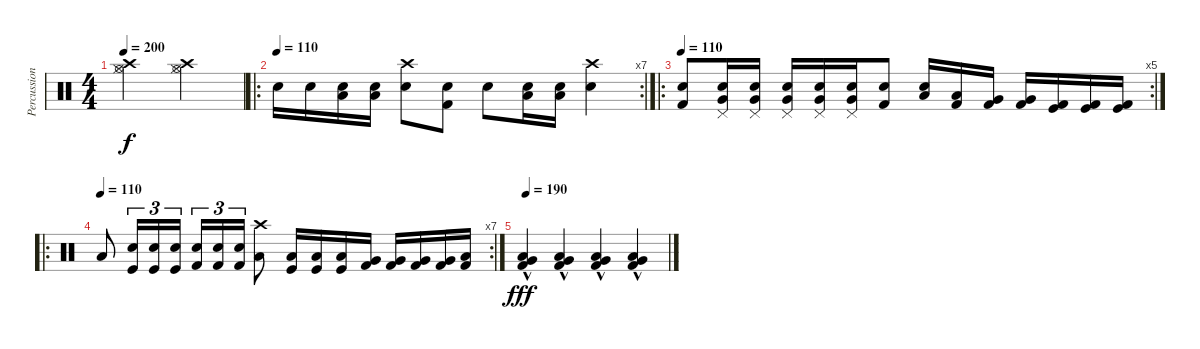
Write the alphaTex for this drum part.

\track ("Percussion" "Percussion") {instrument percussion}
\staff {score}
\articulation defaults
\ts (4 4)
\tempo 200
\clef neutral
\ks c
("Hi-Hat (closed)" "Hi-Hat (open)" "Crash high (hit)").2{dy f} ("Hi-Hat (closed)" "Hi-Hat (open)" "Crash high (hit)").2 |
\ro
\rc 7
\tempo (110)
"Electric Snare (hit)".16 "Electric Snare (hit)".16 ("Low Tom (hit)" "Electric Snare (hit)").16 ("Low Tom (hit)" "Electric Snare (hit)").16 ("Crash high (hit)" "Electric Snare (hit)").8 ("Kick (hit) 2" "Electric Snare (hit)").8 "Electric Snare (hit)".8 ("Low Tom (hit)" "Electric Snare (hit)").16 ("Low Tom (hit)" "Electric Snare (hit)").16 ("Crash high (hit)" "Electric Snare (hit)").4 |
\ro
\rc 5
\tempo 110
("Kick (hit) 2" "Electric Snare (hit)").8 ("Electric Snare (hit)" "Pedal Hi-Hat (hit)" "Very Low Tom (hit)").16 ("Electric Snare (hit)" "Pedal Hi-Hat (hit)" "Very Low Tom (hit)").16 ("Electric Snare (hit)" "Pedal Hi-Hat (hit)" "Very Low Tom (hit)").16 ("Electric Snare (hit)" "Pedal Hi-Hat (hit)" "Very Low Tom (hit)").16 ("Electric Snare (hit)" "Pedal Hi-Hat (hit)" "Very Low Tom (hit)").16 ("Electric Snare (hit)" "Kick (hit) 2").8 ("Low Tom (hit)" "Electric Snare (hit)").16 ("Low Tom (hit)" "Kick (hit) 2").16 ("Very Low Tom (hit)" "Kick (hit) 2").16 ("Very Low Tom (hit)" "Kick (hit) 2").16 ("Kick (hit)" "Kick (hit) 2").16 ("Kick (hit)" "Kick (hit) 2").16 ("Kick (hit)" "Kick (hit) 2").16 |
\ro
\rc 7
\tempo (110)
"Low Floor Tom (hit)".8 ("Electric Snare (hit)" "Kick (hit)").16{tu (3 2)} ("Electric Snare (hit)" "Kick (hit)").16{tu (3 2)} ("Electric Snare (hit)" "Kick (hit)").16{tu (3 2)} ("Electric Snare (hit)" "Kick (hit) 2").16{tu (3 2)} ("Electric Snare (hit)" "Kick (hit) 2").16{tu (3 2)} ("Electric Snare (hit)" "Kick (hit) 2").16{tu (3 2)} ("Crash high (hit)" "Low Floor Tom (hit)").8 ("Low Tom (hit)" "Kick (hit)").16 ("Low Tom (hit)" "Kick (hit)").16 ("Low Tom (hit)" "Kick (hit)").16 ("Very Low Tom (hit)" "Kick (hit) 2").16 ("Very Low Tom (hit)" "Kick (hit) 2").16 ("Very Low Tom (hit)" "Kick (hit) 2").16 ("Very Low Tom (hit)" "Kick (hit) 2").16 ("Low Tom (hit)" "Kick (hit) 2").16 |
\tempo 190
("Kick (hit) 2"{hac} "Low Tom (hit)"{hac} "Very Low Tom (hit)"{hac}).4{dy fff} ("Kick (hit) 2"{hac} "Low Tom (hit)"{hac} "Very Low Tom (hit)"{hac}).4 ("Kick (hit) 2"{hac} "Low Tom (hit)"{hac} "Very Low Tom (hit)"{hac}).4 ("Kick (hit) 2"{hac} "Low Tom (hit)"{hac} "Very Low Tom (hit)"{hac}).4
